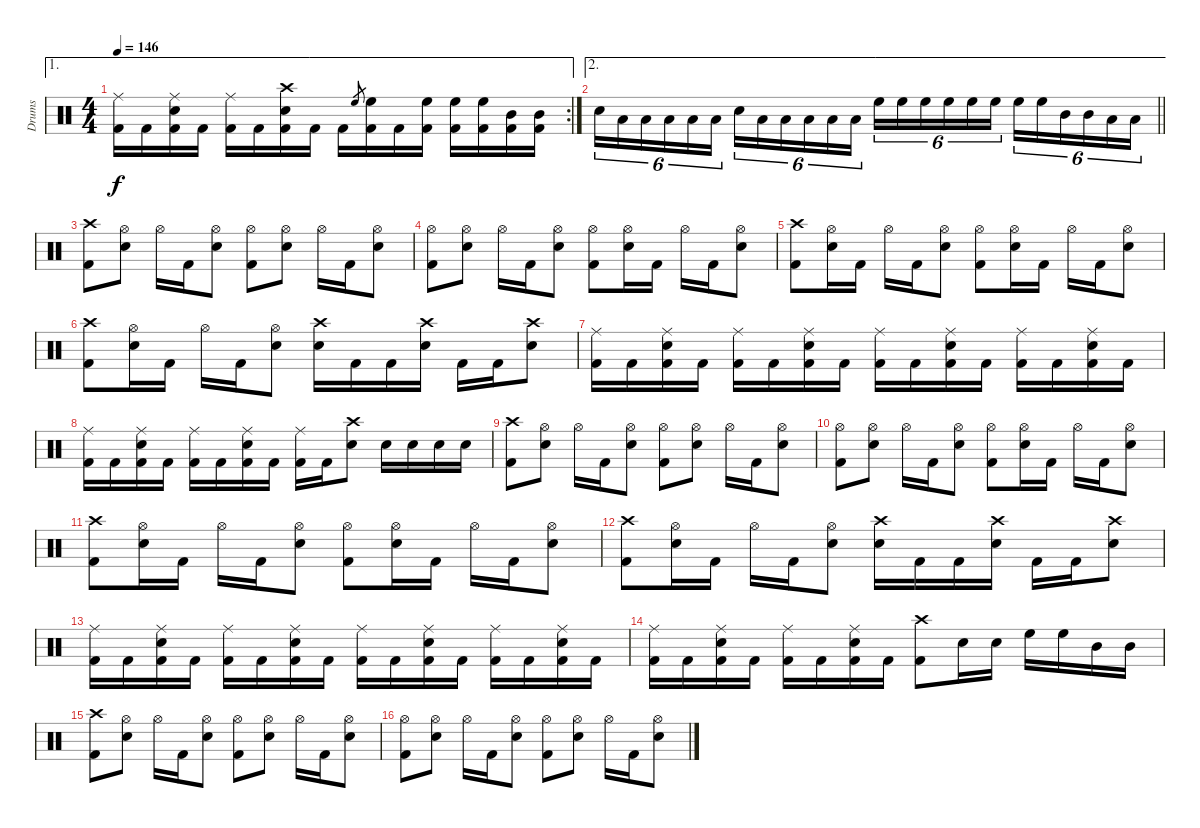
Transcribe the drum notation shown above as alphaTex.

\track ("Drums" "Drums") {instrument percussion}
\staff {score}
\articulation defaults
\ae 1
\rc 2
\ts (4 4)
\tempo 146
\clef neutral
\ks c
("Ride (middle)" "Kick (hit) 2").16{dy f} "Kick (hit) 2".16 ("Ride (middle)" "Snare (hit) 2" "Kick (hit) 2").16 "Kick (hit) 2".16 ("Ride (middle)" "Kick (hit) 2").16 "Kick (hit) 2".16 ("Crash high (hit)" "Snare (hit) 2" "Kick (hit) 2").16 "Kick (hit) 2".16 "Kick (hit) 2".16 "High Floor Tom (hit)".8{gr} ("High Floor Tom (hit)" "Kick (hit) 2").16 "Kick (hit) 2".16 ("High Floor Tom (hit)" "Kick (hit) 2").16 ("High Floor Tom (hit)" "Kick (hit) 2").16 ("High Floor Tom (hit)" "Kick (hit) 2").16 ("Mid Tom (hit)" "Kick (hit) 2").16 ("Mid Tom (hit)" "Kick (hit) 2").16 |
\ae 2
\barLineRight lightlight "Snare (hit) 2".16{tu (6 4)} "Low Floor Tom (hit)".16{tu (6 4)} "Low Floor Tom (hit)".16{tu (6 4)} "Low Floor Tom (hit)".16{tu (6 4)} "Low Floor Tom (hit)".16{tu (6 4)} "Low Floor Tom (hit)".16{tu (6 4)} "Snare (hit) 2".16{tu (6 4)} "Low Floor Tom (hit)".16{tu (6 4)} "Low Floor Tom (hit)".16{tu (6 4)} "Low Floor Tom (hit)".16{tu (6 4)} "Low Floor Tom (hit)".16{tu (6 4)} "Low Floor Tom (hit)".16{tu (6 4)} "High Floor Tom (hit)".16{tu (6 4)} "High Floor Tom (hit)".16{tu (6 4)} "High Floor Tom (hit)".16{tu (6 4)} "High Floor Tom (hit)".16{tu (6 4)} "High Floor Tom (hit)".16{tu (6 4)} "High Floor Tom (hit)".16{tu (6 4)} "High Floor Tom (hit)".16{tu (6 4)} "High Floor Tom (hit)".16{tu (6 4)} "Mid Tom (hit)".16{tu (6 4)} "Mid Tom (hit)".16{tu (6 4)} "Low Floor Tom (hit)".16{tu (6 4)} "Low Floor Tom (hit)".16{tu (6 4)}
|
("Crash high (hit)" "Kick (hit) 2").8 ("Hi-Hat (open)" "Snare (hit) 2").8 "Hi-Hat (open)".16 "Kick (hit) 2".16 ("Hi-Hat (open)" "Snare (hit) 2").8 ("Hi-Hat (open)" "Kick (hit) 2").8 ("Hi-Hat (open)" "Snare (hit) 2").8 "Hi-Hat (open)".16 "Kick (hit) 2".16 ("Hi-Hat (open)" "Snare (hit) 2").8 |
("Hi-Hat (open)" "Kick (hit) 2").8 ("Hi-Hat (open)" "Snare (hit) 2").8 "Hi-Hat (open)".16 "Kick (hit) 2".16 ("Hi-Hat (open)" "Snare (hit) 2").8 ("Hi-Hat (open)" "Kick (hit) 2").8 ("Hi-Hat (open)" "Snare (hit) 2").16 "Kick (hit) 2".16 "Hi-Hat (open)".16 "Kick (hit) 2".16 ("Hi-Hat (open)" "Snare (hit) 2").8 |
("Crash high (hit)" "Kick (hit) 2").8 ("Hi-Hat (open)" "Snare (hit) 2").16 "Kick (hit) 2".16 "Hi-Hat (open)".16 "Kick (hit) 2".16 ("Hi-Hat (open)" "Snare (hit) 2").8 ("Hi-Hat (open)" "Kick (hit) 2").8 ("Hi-Hat (open)" "Snare (hit) 2").16 "Kick (hit) 2".16 "Hi-Hat (open)".16 "Kick (hit) 2".16 ("Hi-Hat (open)" "Snare (hit) 2").8 |
("Crash high (hit)" "Kick (hit) 2").8 ("Hi-Hat (open)" "Snare (hit) 2").16 "Kick (hit) 2".16 "Hi-Hat (open)".16 "Kick (hit) 2".16 ("Hi-Hat (open)" "Snare (hit) 2").8 ("Crash high (hit)" "Snare (hit) 2").16 "Kick (hit) 2".16 "Kick (hit) 2".16 ("Crash high (hit)" "Snare (hit) 2").16 "Kick (hit) 2".16 "Kick (hit) 2".16 ("Crash high (hit)" "Snare (hit) 2").8 |
("Ride (middle)" "Kick (hit) 2").16 "Kick (hit) 2".16 ("Ride (middle)" "Snare (hit) 2" "Kick (hit) 2").16 "Kick (hit) 2".16 ("Ride (middle)" "Kick (hit) 2").16 "Kick (hit) 2".16 ("Ride (middle)" "Snare (hit) 2" "Kick (hit) 2").16 "Kick (hit) 2".16 ("Ride (middle)" "Kick (hit) 2").16 "Kick (hit) 2".16 ("Ride (middle)" "Snare (hit) 2" "Kick (hit) 2").16 "Kick (hit) 2".16 ("Ride (middle)" "Kick (hit) 2").16 "Kick (hit) 2".16 ("Ride (middle)" "Snare (hit) 2" "Kick (hit) 2").16 "Kick (hit) 2".16 |
("Ride (middle)" "Kick (hit) 2").16 "Kick (hit) 2".16 ("Ride (middle)" "Snare (hit) 2" "Kick (hit) 2").16 "Kick (hit) 2".16 ("Ride (middle)" "Kick (hit) 2").16 "Kick (hit) 2".16 ("Ride (middle)" "Snare (hit) 2" "Kick (hit) 2").16 "Kick (hit) 2".16 ("Ride (middle)" "Kick (hit) 2").16 "Kick (hit) 2".16 ("Crash high (hit)" "Snare (hit) 2").8 "Snare (hit) 2".16 "Snare (hit) 2".16 "Snare (hit) 2".16 "Snare (hit) 2".16 |
("Crash high (hit)" "Kick (hit) 2").8 ("Hi-Hat (open)" "Snare (hit) 2").8 "Hi-Hat (open)".16 "Kick (hit) 2".16 ("Hi-Hat (open)" "Snare (hit) 2").8 ("Hi-Hat (open)" "Kick (hit) 2").8 ("Hi-Hat (open)" "Snare (hit) 2").8 "Hi-Hat (open)".16 "Kick (hit) 2".16 ("Hi-Hat (open)" "Snare (hit) 2").8 |
("Hi-Hat (open)" "Kick (hit) 2").8 ("Hi-Hat (open)" "Snare (hit) 2").8 "Hi-Hat (open)".16 "Kick (hit) 2".16 ("Hi-Hat (open)" "Snare (hit) 2").8 ("Hi-Hat (open)" "Kick (hit) 2").8 ("Hi-Hat (open)" "Snare (hit) 2").16 "Kick (hit) 2".16 "Hi-Hat (open)".16 "Kick (hit) 2".16 ("Hi-Hat (open)" "Snare (hit) 2").8 |
("Crash high (hit)" "Kick (hit) 2").8 ("Hi-Hat (open)" "Snare (hit) 2").16 "Kick (hit) 2".16 "Hi-Hat (open)".16 "Kick (hit) 2".16 ("Hi-Hat (open)" "Snare (hit) 2").8 ("Hi-Hat (open)" "Kick (hit) 2").8 ("Hi-Hat (open)" "Snare (hit) 2").16 "Kick (hit) 2".16 "Hi-Hat (open)".16 "Kick (hit) 2".16 ("Hi-Hat (open)" "Snare (hit) 2").8 |
("Crash high (hit)" "Kick (hit) 2").8 ("Hi-Hat (open)" "Snare (hit) 2").16 "Kick (hit) 2".16 "Hi-Hat (open)".16 "Kick (hit) 2".16 ("Hi-Hat (open)" "Snare (hit) 2").8 ("Crash high (hit)" "Snare (hit) 2").16 "Kick (hit) 2".16 "Kick (hit) 2".16 ("Crash high (hit)" "Snare (hit) 2").16 "Kick (hit) 2".16 "Kick (hit) 2".16 ("Crash high (hit)" "Snare (hit) 2").8 |
("Ride (middle)" "Kick (hit) 2").16 "Kick (hit) 2".16 ("Ride (middle)" "Snare (hit) 2" "Kick (hit) 2").16 "Kick (hit) 2".16 ("Ride (middle)" "Kick (hit) 2").16 "Kick (hit) 2".16 ("Ride (middle)" "Snare (hit) 2" "Kick (hit) 2").16 "Kick (hit) 2".16 ("Ride (middle)" "Kick (hit) 2").16 "Kick (hit) 2".16 ("Ride (middle)" "Snare (hit) 2" "Kick (hit) 2").16 "Kick (hit) 2".16 ("Ride (middle)" "Kick (hit) 2").16 "Kick (hit) 2".16 ("Ride (middle)" "Snare (hit) 2" "Kick (hit) 2").16 "Kick (hit) 2".16 |
("Ride (middle)" "Kick (hit) 2").16 "Kick (hit) 2".16 ("Ride (middle)" "Snare (hit) 2" "Kick (hit) 2").16 "Kick (hit) 2".16 ("Ride (middle)" "Kick (hit) 2").16 "Kick (hit) 2".16 ("Ride (middle)" "Snare (hit) 2" "Kick (hit) 2").16 "Kick (hit) 2".16 ("Crash high (hit)" "Kick (hit) 2").8 "Snare (hit) 2".16 "Snare (hit) 2".16 "High Floor Tom (hit)".16 "High Floor Tom (hit)".16 "Mid Tom (hit)".16 "Mid Tom (hit)".16 |
("Crash high (hit)" "Kick (hit) 2").8 ("Hi-Hat (open)" "Snare (hit) 2").8 "Hi-Hat (open)".16 "Kick (hit) 2".16 ("Hi-Hat (open)" "Snare (hit) 2").8 ("Hi-Hat (open)" "Kick (hit) 2").8 ("Hi-Hat (open)" "Snare (hit) 2").8 "Hi-Hat (open)".16 "Kick (hit) 2".16 ("Hi-Hat (open)" "Snare (hit) 2").8 |
("Hi-Hat (open)" "Kick (hit) 2").8 ("Hi-Hat (open)" "Snare (hit) 2").8 "Hi-Hat (open)".16 "Kick (hit) 2".16 ("Hi-Hat (open)" "Snare (hit) 2").8 ("Hi-Hat (open)" "Kick (hit) 2").8 ("Hi-Hat (open)" "Snare (hit) 2").8 "Hi-Hat (open)".16 "Kick (hit) 2".16 ("Hi-Hat (open)" "Snare (hit) 2").8
